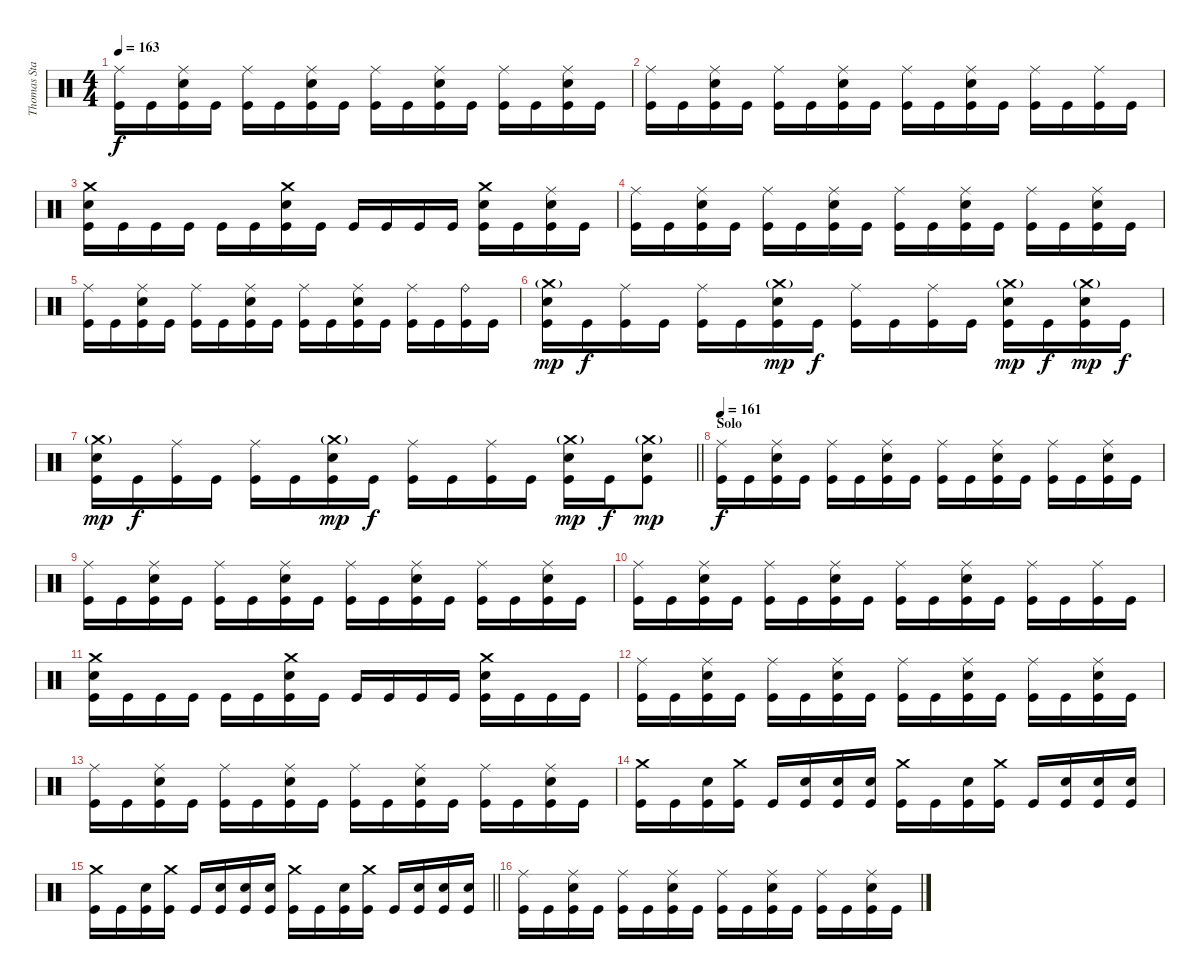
\track ("Thomas Stauch" "Thomas Sta") {instrument percussion}
\staff {score}
\articulation defaults
\ts (4 4)
\tempo 163
\clef neutral
\ks c
("Ride (middle)" "Kick (hit)").16{dy f} "Kick (hit)".16 ("Ride (middle)" "Electric Snare (hit)" "Kick (hit)").16 "Kick (hit)".16 ("Ride (middle)" "Kick (hit)").16 "Kick (hit)".16 ("Ride (middle)" "Electric Snare (hit)" "Kick (hit)").16 "Kick (hit)".16 ("Ride (middle)" "Kick (hit)").16 "Kick (hit)".16 ("Ride (middle)" "Electric Snare (hit)" "Kick (hit)").16 "Kick (hit)".16 ("Ride (middle)" "Kick (hit)").16 "Kick (hit)".16 ("Ride (middle)" "Electric Snare (hit)" "Kick (hit)").16 "Kick (hit)".16 |
("Ride (middle)" "Kick (hit)").16 "Kick (hit)".16 ("Ride (middle)" "Electric Snare (hit)" "Kick (hit)").16 "Kick (hit)".16 ("Ride (middle)" "Kick (hit)").16 "Kick (hit)".16 ("Ride (middle)" "Electric Snare (hit)" "Kick (hit)").16 "Kick (hit)".16 ("Ride (middle)" "Kick (hit)").16 "Kick (hit)".16 ("Ride (middle)" "Electric Snare (hit)" "Kick (hit)").16 "Kick (hit)".16 ("Ride (middle)" "Kick (hit)").16 "Kick (hit)".16 ("Ride (middle)" "Kick (hit)").16 "Kick (hit)".16 |
("Crash medium (hit)" "Electric Snare (hit)" "Kick (hit)").16 "Kick (hit)".16 "Kick (hit)".16 "Kick (hit)".16 "Kick (hit)".16 "Kick (hit)".16 ("Crash medium (hit)" "Electric Snare (hit)" "Kick (hit)").16 "Kick (hit)".16 "Kick (hit)".16 "Kick (hit)".16 "Kick (hit)".16 "Kick (hit)".16 ("Crash medium (hit)" "Electric Snare (hit)" "Kick (hit)").16 "Kick (hit)".16 ("Ride (middle)" "Electric Snare (hit)" "Kick (hit)").16 "Kick (hit)".16 |
("Ride (middle)" "Kick (hit)").16 "Kick (hit)".16 ("Ride (middle)" "Electric Snare (hit)" "Kick (hit)").16 "Kick (hit)".16 ("Ride (middle)" "Kick (hit)").16 "Kick (hit)".16 ("Ride (middle)" "Electric Snare (hit)" "Kick (hit)").16 "Kick (hit)".16 ("Ride (middle)" "Kick (hit)").16 "Kick (hit)".16 ("Ride (middle)" "Electric Snare (hit)" "Kick (hit)").16 "Kick (hit)".16 ("Ride (middle)" "Kick (hit)").16 "Kick (hit)".16 ("Ride (middle)" "Electric Snare (hit)" "Kick (hit)").16 "Kick (hit)".16 |
("Ride (middle)" "Kick (hit)").16 "Kick (hit)".16 ("Ride (middle)" "Electric Snare (hit)" "Kick (hit)").16 "Kick (hit)".16 ("Ride (middle)" "Kick (hit)").16 "Kick (hit)".16 ("Ride (middle)" "Electric Snare (hit)" "Kick (hit)").16 "Kick (hit)".16 ("Ride (middle)" "Kick (hit)").16 "Kick (hit)".16 ("Ride (middle)" "Electric Snare (hit)" "Kick (hit)").16 "Kick (hit)".16 ("Ride (middle)" "Kick (hit)").16 "Kick (hit)".16 ("Ride (bell)" "Kick (hit)").16 "Kick (hit)".16 |
("Crash medium (hit)"{g} "Electric Snare (hit)" "Kick (hit)").16{dy mp} "Kick (hit)".16{dy f} ("Ride (middle)" "Kick (hit)").16 "Kick (hit)".16 ("Ride (middle)" "Kick (hit)").16 "Kick (hit)".16 ("Crash medium (hit)"{g} "Electric Snare (hit)" "Kick (hit)").16{dy mp} "Kick (hit)".16{dy f} ("Ride (middle)" "Kick (hit)").16 "Kick (hit)".16 ("Ride (middle)" "Kick (hit)").16 "Kick (hit)".16 ("Crash medium (hit)"{g} "Electric Snare (hit)" "Kick (hit)").16{dy mp} "Kick (hit)".16{dy f} ("Crash medium (hit)"{g} "Electric Snare (hit)" "Kick (hit)").16{dy mp} "Kick (hit)".16{dy f} |
\barLineRight lightlight
("Crash medium (hit)"{g} "Electric Snare (hit)" "Kick (hit)").16{dy mp} "Kick (hit)".16{dy f} ("Ride (middle)" "Kick (hit)").16 "Kick (hit)".16 ("Ride (middle)" "Kick (hit)").16 "Kick (hit)".16 ("Crash medium (hit)"{g} "Electric Snare (hit)" "Kick (hit)").16{dy mp} "Kick (hit)".16{dy f} ("Ride (middle)" "Kick (hit)").16 "Kick (hit)".16 ("Ride (middle)" "Kick (hit)").16 "Kick (hit)".16 ("Crash medium (hit)"{g} "Electric Snare (hit)" "Kick (hit)").16{dy mp} "Kick (hit)".16{dy f} ("Crash medium (hit)"{g} "Electric Snare (hit)" "Kick (hit)").8{dy mp} |
\section ("" "Solo")
\tempo 161
("Ride (middle)" "Kick (hit)").16{dy f} "Kick (hit)".16 ("Ride (middle)" "Electric Snare (hit)" "Kick (hit)").16 "Kick (hit)".16 ("Ride (middle)" "Kick (hit)").16 "Kick (hit)".16 ("Ride (middle)" "Electric Snare (hit)" "Kick (hit)").16 "Kick (hit)".16 ("Ride (middle)" "Kick (hit)").16 "Kick (hit)".16 ("Ride (middle)" "Electric Snare (hit)" "Kick (hit)").16 "Kick (hit)".16 ("Ride (middle)" "Kick (hit)").16 "Kick (hit)".16 ("Ride (middle)" "Electric Snare (hit)" "Kick (hit)").16 "Kick (hit)".16 |
("Ride (middle)" "Kick (hit)").16 "Kick (hit)".16 ("Ride (middle)" "Electric Snare (hit)" "Kick (hit)").16 "Kick (hit)".16 ("Ride (middle)" "Kick (hit)").16 "Kick (hit)".16 ("Ride (middle)" "Electric Snare (hit)" "Kick (hit)").16 "Kick (hit)".16 ("Ride (middle)" "Kick (hit)").16 "Kick (hit)".16 ("Ride (middle)" "Electric Snare (hit)" "Kick (hit)").16 "Kick (hit)".16 ("Ride (middle)" "Kick (hit)").16 "Kick (hit)".16 ("Ride (middle)" "Electric Snare (hit)" "Kick (hit)").16 "Kick (hit)".16 |
("Ride (middle)" "Kick (hit)").16 "Kick (hit)".16 ("Ride (middle)" "Electric Snare (hit)" "Kick (hit)").16 "Kick (hit)".16 ("Ride (middle)" "Kick (hit)").16 "Kick (hit)".16 ("Ride (middle)" "Electric Snare (hit)" "Kick (hit)").16 "Kick (hit)".16 ("Ride (middle)" "Kick (hit)").16 "Kick (hit)".16 ("Ride (middle)" "Electric Snare (hit)" "Kick (hit)").16 "Kick (hit)".16 ("Ride (middle)" "Kick (hit)").16 "Kick (hit)".16 ("Ride (middle)" "Kick (hit)").16 "Kick (hit)".16 |
("Crash medium (hit)" "Electric Snare (hit)" "Kick (hit)").16 "Kick (hit)".16 "Kick (hit)".16 "Kick (hit)".16 "Kick (hit)".16 "Kick (hit)".16 ("Crash medium (hit)" "Electric Snare (hit)" "Kick (hit)").16 "Kick (hit)".16 "Kick (hit)".16 "Kick (hit)".16 "Kick (hit)".16 "Kick (hit)".16 ("Crash medium (hit)" "Electric Snare (hit)" "Kick (hit)").16 "Kick (hit)".16 "Kick (hit)".16 "Kick (hit)".16 |
("Ride (middle)" "Kick (hit)").16 "Kick (hit)".16 ("Ride (middle)" "Electric Snare (hit)" "Kick (hit)").16 "Kick (hit)".16 ("Ride (middle)" "Kick (hit)").16 "Kick (hit)".16 ("Ride (middle)" "Electric Snare (hit)" "Kick (hit)").16 "Kick (hit)".16 ("Ride (middle)" "Kick (hit)").16 "Kick (hit)".16 ("Ride (middle)" "Electric Snare (hit)" "Kick (hit)").16 "Kick (hit)".16 ("Ride (middle)" "Kick (hit)").16 "Kick (hit)".16 ("Ride (middle)" "Electric Snare (hit)" "Kick (hit)").16 "Kick (hit)".16 |
("Ride (middle)" "Kick (hit)").16 "Kick (hit)".16 ("Ride (middle)" "Electric Snare (hit)" "Kick (hit)").16 "Kick (hit)".16 ("Ride (middle)" "Kick (hit)").16 "Kick (hit)".16 ("Ride (middle)" "Electric Snare (hit)" "Kick (hit)").16 "Kick (hit)".16 ("Ride (middle)" "Kick (hit)").16 "Kick (hit)".16 ("Ride (middle)" "Electric Snare (hit)" "Kick (hit)").16 "Kick (hit)".16 ("Ride (middle)" "Kick (hit)").16 "Kick (hit)".16 ("Ride (middle)" "Electric Snare (hit)" "Kick (hit)").16 "Kick (hit)".16 |
("Crash medium (hit)" "Kick (hit)").16 "Kick (hit)".16 ("Electric Snare (hit)" "Kick (hit)").16 ("Crash medium (hit)" "Kick (hit)").16 "Kick (hit)".16 ("Electric Snare (hit)" "Kick (hit)").16 ("Electric Snare (hit)" "Kick (hit)").16 ("Electric Snare (hit)" "Kick (hit)").16 ("Crash medium (hit)" "Kick (hit)").16 "Kick (hit)".16 ("Electric Snare (hit)" "Kick (hit)").16 ("Crash medium (hit)" "Kick (hit)").16 "Kick (hit)".16 ("Electric Snare (hit)" "Kick (hit)").16 ("Electric Snare (hit)" "Kick (hit)").16 ("Electric Snare (hit)" "Kick (hit)").16 |
\barLineRight lightlight
("Crash medium (hit)" "Kick (hit)").16 "Kick (hit)".16 ("Electric Snare (hit)" "Kick (hit)").16 ("Crash medium (hit)" "Kick (hit)").16 "Kick (hit)".16 ("Electric Snare (hit)" "Kick (hit)").16 ("Electric Snare (hit)" "Kick (hit)").16 ("Electric Snare (hit)" "Kick (hit)").16 ("Crash medium (hit)" "Kick (hit)").16 "Kick (hit)".16 ("Electric Snare (hit)" "Kick (hit)").16 ("Crash medium (hit)" "Kick (hit)").16 "Kick (hit)".16 ("Electric Snare (hit)" "Kick (hit)").16 ("Electric Snare (hit)" "Kick (hit)").16 ("Electric Snare (hit)" "Kick (hit)").16 |
("Ride (middle)" "Kick (hit)").16 "Kick (hit)".16 ("Ride (middle)" "Electric Snare (hit)" "Kick (hit)").16 "Kick (hit)".16 ("Ride (middle)" "Kick (hit)").16 "Kick (hit)".16 ("Ride (middle)" "Electric Snare (hit)" "Kick (hit)").16 "Kick (hit)".16 ("Ride (middle)" "Kick (hit)").16 "Kick (hit)".16 ("Ride (middle)" "Electric Snare (hit)" "Kick (hit)").16 "Kick (hit)".16 ("Ride (middle)" "Kick (hit)").16 "Kick (hit)".16 ("Ride (middle)" "Electric Snare (hit)" "Kick (hit)").16 "Kick (hit)".16
